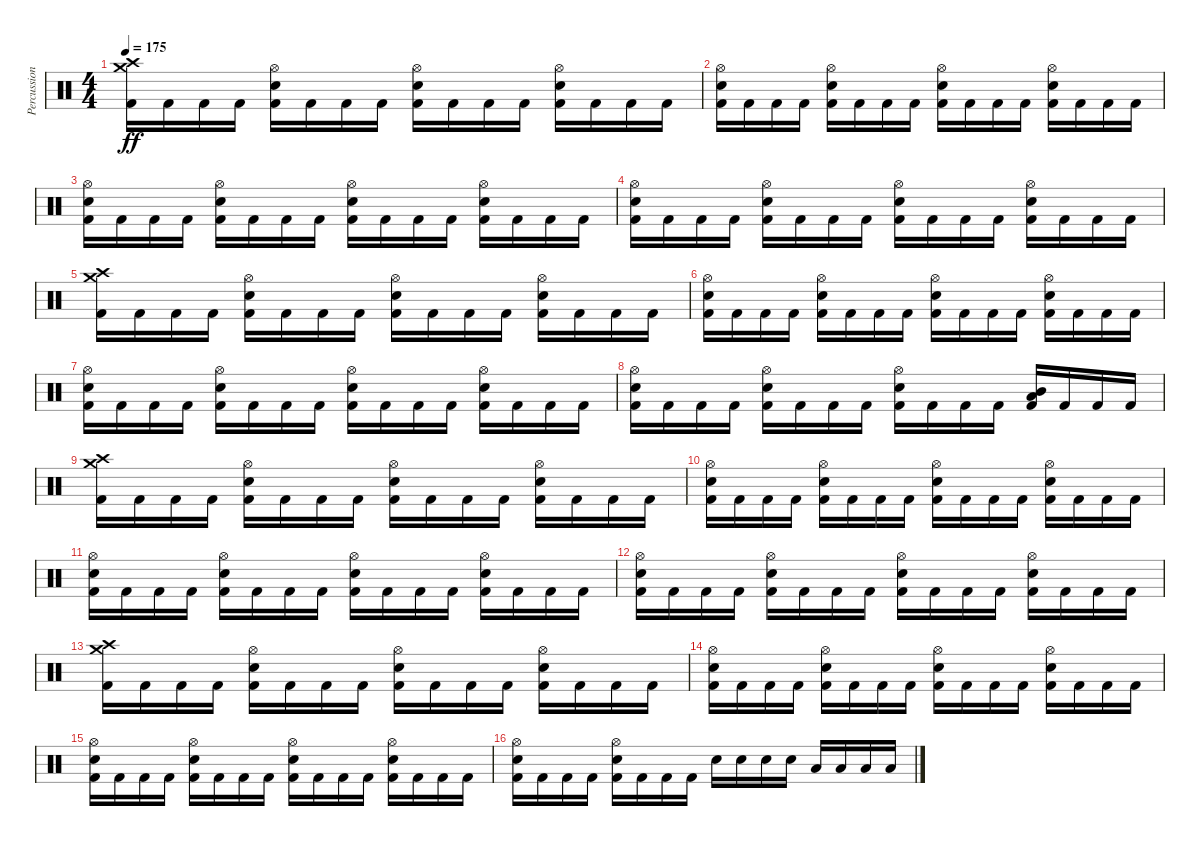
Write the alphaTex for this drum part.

\track ("Percussion" "Percussion") {instrument percussion}
\staff {score}
\articulation defaults
\ts (4 4)
\tempo 175
\clef neutral
\ks c
("Kick (hit) 2" "Crash medium (hit)" "Crash high (hit)").16{dy ff} "Kick (hit) 2".16 "Kick (hit) 2".16 "Kick (hit) 2".16 ("Kick (hit) 2" "Electric Snare (hit)" "Hi-Hat (open)").16 "Kick (hit) 2".16 "Kick (hit) 2".16 "Kick (hit) 2".16 ("Kick (hit) 2" "Electric Snare (hit)" "Hi-Hat (open)").16 "Kick (hit) 2".16 "Kick (hit) 2".16 "Kick (hit) 2".16 ("Kick (hit) 2" "Electric Snare (hit)" "Hi-Hat (open)").16 "Kick (hit) 2".16 "Kick (hit) 2".16 "Kick (hit) 2".16 |
("Kick (hit) 2" "Electric Snare (hit)" "Hi-Hat (open)").16 "Kick (hit) 2".16 "Kick (hit) 2".16 "Kick (hit) 2".16 ("Kick (hit) 2" "Electric Snare (hit)" "Hi-Hat (open)").16 "Kick (hit) 2".16 "Kick (hit) 2".16 "Kick (hit) 2".16 ("Kick (hit) 2" "Electric Snare (hit)" "Hi-Hat (open)").16 "Kick (hit) 2".16 "Kick (hit) 2".16 "Kick (hit) 2".16 ("Kick (hit) 2" "Electric Snare (hit)" "Hi-Hat (open)").16 "Kick (hit) 2".16 "Kick (hit) 2".16 "Kick (hit) 2".16 |
("Kick (hit) 2" "Electric Snare (hit)" "Hi-Hat (open)").16 "Kick (hit) 2".16 "Kick (hit) 2".16 "Kick (hit) 2".16 ("Kick (hit) 2" "Electric Snare (hit)" "Hi-Hat (open)").16 "Kick (hit) 2".16 "Kick (hit) 2".16 "Kick (hit) 2".16 ("Kick (hit) 2" "Electric Snare (hit)" "Hi-Hat (open)").16 "Kick (hit) 2".16 "Kick (hit) 2".16 "Kick (hit) 2".16 ("Kick (hit) 2" "Electric Snare (hit)" "Hi-Hat (open)").16 "Kick (hit) 2".16 "Kick (hit) 2".16 "Kick (hit) 2".16 |
("Kick (hit) 2" "Electric Snare (hit)" "Hi-Hat (open)").16 "Kick (hit) 2".16 "Kick (hit) 2".16 "Kick (hit) 2".16 ("Kick (hit) 2" "Electric Snare (hit)" "Hi-Hat (open)").16 "Kick (hit) 2".16 "Kick (hit) 2".16 "Kick (hit) 2".16 ("Kick (hit) 2" "Electric Snare (hit)" "Hi-Hat (open)").16 "Kick (hit) 2".16 "Kick (hit) 2".16 "Kick (hit) 2".16 ("Kick (hit) 2" "Electric Snare (hit)" "Hi-Hat (open)").16 "Kick (hit) 2".16 "Kick (hit) 2".16 "Kick (hit) 2".16 |
("Kick (hit) 2" "Crash medium (hit)" "Crash high (hit)").16 "Kick (hit) 2".16 "Kick (hit) 2".16 "Kick (hit) 2".16 ("Kick (hit) 2" "Electric Snare (hit)" "Hi-Hat (open)").16 "Kick (hit) 2".16 "Kick (hit) 2".16 "Kick (hit) 2".16 ("Kick (hit) 2" "Electric Snare (hit)" "Hi-Hat (open)").16 "Kick (hit) 2".16 "Kick (hit) 2".16 "Kick (hit) 2".16 ("Kick (hit) 2" "Electric Snare (hit)" "Hi-Hat (open)").16 "Kick (hit) 2".16 "Kick (hit) 2".16 "Kick (hit) 2".16 |
("Kick (hit) 2" "Electric Snare (hit)" "Hi-Hat (open)").16 "Kick (hit) 2".16 "Kick (hit) 2".16 "Kick (hit) 2".16 ("Kick (hit) 2" "Electric Snare (hit)" "Hi-Hat (open)").16 "Kick (hit) 2".16 "Kick (hit) 2".16 "Kick (hit) 2".16 ("Kick (hit) 2" "Electric Snare (hit)" "Hi-Hat (open)").16 "Kick (hit) 2".16 "Kick (hit) 2".16 "Kick (hit) 2".16 ("Kick (hit) 2" "Electric Snare (hit)" "Hi-Hat (open)").16 "Kick (hit) 2".16 "Kick (hit) 2".16 "Kick (hit) 2".16 |
("Kick (hit) 2" "Electric Snare (hit)" "Hi-Hat (open)").16 "Kick (hit) 2".16 "Kick (hit) 2".16 "Kick (hit) 2".16 ("Kick (hit) 2" "Electric Snare (hit)" "Hi-Hat (open)").16 "Kick (hit) 2".16 "Kick (hit) 2".16 "Kick (hit) 2".16 ("Kick (hit) 2" "Electric Snare (hit)" "Hi-Hat (open)").16 "Kick (hit) 2".16 "Kick (hit) 2".16 "Kick (hit) 2".16 ("Kick (hit) 2" "Electric Snare (hit)" "Hi-Hat (open)").16 "Kick (hit) 2".16 "Kick (hit) 2".16 "Kick (hit) 2".16 |
("Kick (hit) 2" "Electric Snare (hit)" "Hi-Hat (open)").16 "Kick (hit) 2".16 "Kick (hit) 2".16 "Kick (hit) 2".16 ("Kick (hit) 2" "Electric Snare (hit)" "Hi-Hat (open)").16 "Kick (hit) 2".16 "Kick (hit) 2".16 "Kick (hit) 2".16 ("Kick (hit) 2" "Electric Snare (hit)" "Hi-Hat (open)").16 "Kick (hit) 2".16 "Kick (hit) 2".16 "Kick (hit) 2".16 ("Kick (hit) 2" "Low Tom (hit)" "Mid Tom (hit)").16 "Kick (hit) 2".16 "Kick (hit) 2".16 "Kick (hit) 2".16 |
("Kick (hit) 2" "Crash medium (hit)" "Crash high (hit)").16 "Kick (hit) 2".16 "Kick (hit) 2".16 "Kick (hit) 2".16 ("Kick (hit) 2" "Electric Snare (hit)" "Hi-Hat (open)").16 "Kick (hit) 2".16 "Kick (hit) 2".16 "Kick (hit) 2".16 ("Kick (hit) 2" "Electric Snare (hit)" "Hi-Hat (open)").16 "Kick (hit) 2".16 "Kick (hit) 2".16 "Kick (hit) 2".16 ("Kick (hit) 2" "Electric Snare (hit)" "Hi-Hat (open)").16 "Kick (hit) 2".16 "Kick (hit) 2".16 "Kick (hit) 2".16 |
("Kick (hit) 2" "Electric Snare (hit)" "Hi-Hat (open)").16 "Kick (hit) 2".16 "Kick (hit) 2".16 "Kick (hit) 2".16 ("Kick (hit) 2" "Electric Snare (hit)" "Hi-Hat (open)").16 "Kick (hit) 2".16 "Kick (hit) 2".16 "Kick (hit) 2".16 ("Kick (hit) 2" "Electric Snare (hit)" "Hi-Hat (open)").16 "Kick (hit) 2".16 "Kick (hit) 2".16 "Kick (hit) 2".16 ("Kick (hit) 2" "Electric Snare (hit)" "Hi-Hat (open)").16 "Kick (hit) 2".16 "Kick (hit) 2".16 "Kick (hit) 2".16 |
("Kick (hit) 2" "Electric Snare (hit)" "Hi-Hat (open)").16 "Kick (hit) 2".16 "Kick (hit) 2".16 "Kick (hit) 2".16 ("Kick (hit) 2" "Electric Snare (hit)" "Hi-Hat (open)").16 "Kick (hit) 2".16 "Kick (hit) 2".16 "Kick (hit) 2".16 ("Kick (hit) 2" "Electric Snare (hit)" "Hi-Hat (open)").16 "Kick (hit) 2".16 "Kick (hit) 2".16 "Kick (hit) 2".16 ("Kick (hit) 2" "Electric Snare (hit)" "Hi-Hat (open)").16 "Kick (hit) 2".16 "Kick (hit) 2".16 "Kick (hit) 2".16 |
("Kick (hit) 2" "Electric Snare (hit)" "Hi-Hat (open)").16 "Kick (hit) 2".16 "Kick (hit) 2".16 "Kick (hit) 2".16 ("Kick (hit) 2" "Electric Snare (hit)" "Hi-Hat (open)").16 "Kick (hit) 2".16 "Kick (hit) 2".16 "Kick (hit) 2".16 ("Kick (hit) 2" "Electric Snare (hit)" "Hi-Hat (open)").16 "Kick (hit) 2".16 "Kick (hit) 2".16 "Kick (hit) 2".16 ("Kick (hit) 2" "Electric Snare (hit)" "Hi-Hat (open)").16 "Kick (hit) 2".16 "Kick (hit) 2".16 "Kick (hit) 2".16 |
("Kick (hit) 2" "Crash medium (hit)" "Crash high (hit)").16 "Kick (hit) 2".16 "Kick (hit) 2".16 "Kick (hit) 2".16 ("Kick (hit) 2" "Electric Snare (hit)" "Hi-Hat (open)").16 "Kick (hit) 2".16 "Kick (hit) 2".16 "Kick (hit) 2".16 ("Kick (hit) 2" "Electric Snare (hit)" "Hi-Hat (open)").16 "Kick (hit) 2".16 "Kick (hit) 2".16 "Kick (hit) 2".16 ("Kick (hit) 2" "Electric Snare (hit)" "Hi-Hat (open)").16 "Kick (hit) 2".16 "Kick (hit) 2".16 "Kick (hit) 2".16 |
("Kick (hit) 2" "Electric Snare (hit)" "Hi-Hat (open)").16 "Kick (hit) 2".16 "Kick (hit) 2".16 "Kick (hit) 2".16 ("Kick (hit) 2" "Electric Snare (hit)" "Hi-Hat (open)").16 "Kick (hit) 2".16 "Kick (hit) 2".16 "Kick (hit) 2".16 ("Kick (hit) 2" "Electric Snare (hit)" "Hi-Hat (open)").16 "Kick (hit) 2".16 "Kick (hit) 2".16 "Kick (hit) 2".16 ("Kick (hit) 2" "Electric Snare (hit)" "Hi-Hat (open)").16 "Kick (hit) 2".16 "Kick (hit) 2".16 "Kick (hit) 2".16 |
("Kick (hit) 2" "Electric Snare (hit)" "Hi-Hat (open)").16 "Kick (hit) 2".16 "Kick (hit) 2".16 "Kick (hit) 2".16 ("Kick (hit) 2" "Electric Snare (hit)" "Hi-Hat (open)").16 "Kick (hit) 2".16 "Kick (hit) 2".16 "Kick (hit) 2".16 ("Kick (hit) 2" "Electric Snare (hit)" "Hi-Hat (open)").16 "Kick (hit) 2".16 "Kick (hit) 2".16 "Kick (hit) 2".16 ("Kick (hit) 2" "Electric Snare (hit)" "Hi-Hat (open)").16 "Kick (hit) 2".16 "Kick (hit) 2".16 "Kick (hit) 2".16 |
("Kick (hit) 2" "Electric Snare (hit)" "Hi-Hat (open)").16 "Kick (hit) 2".16 "Kick (hit) 2".16 "Kick (hit) 2".16 ("Kick (hit) 2" "Electric Snare (hit)" "Hi-Hat (open)").16 "Kick (hit) 2".16 "Kick (hit) 2".16 "Kick (hit) 2".16 "Electric Snare (hit)".16 "Electric Snare (hit)".16 "Electric Snare (hit)".16 "Electric Snare (hit)".16 "Low Floor Tom (hit)".16 "Low Floor Tom (hit)".16 "Low Floor Tom (hit)".16 "Low Floor Tom (hit)".16
